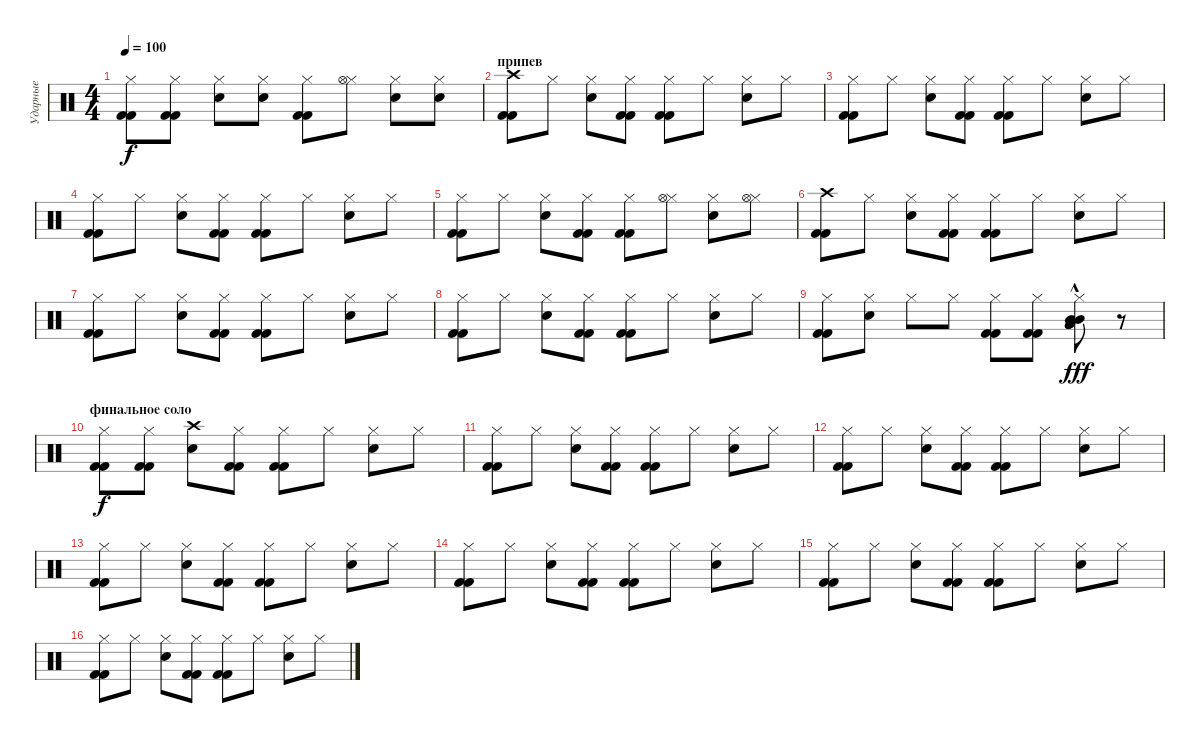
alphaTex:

\track ("Ударные" "Ударные") {instrument percussion}
\staff {score}
\articulation defaults
\ts (4 4)
\tempo 100
\clef neutral
\ks c
("Hi-Hat (closed)" "Kick (hit) 2" "Kick (hit) 2").8{dy f} ("Hi-Hat (closed)" "Kick (hit) 2" "Kick (hit) 2").8 ("Hi-Hat (closed)" "Snare (hit) 2").8 ("Hi-Hat (closed)" "Snare (hit) 2").8 ("Hi-Hat (closed)" "Kick (hit) 2" "Kick (hit) 2").8 ("Hi-Hat (closed)" "Hi-Hat (open)").8 ("Hi-Hat (closed)" "Snare (hit) 2").8 ("Hi-Hat (closed)" "Snare (hit) 2").8 |
\section ("" "припев")
("Crash high (hit)" "Kick (hit) 2" "Kick (hit) 2").8 "Hi-Hat (closed)".8 ("Hi-Hat (closed)" "Snare (hit) 2").8 ("Hi-Hat (closed)" "Kick (hit) 2" "Kick (hit) 2").8 ("Hi-Hat (closed)" "Kick (hit) 2" "Kick (hit) 2").8 "Hi-Hat (closed)".8 ("Hi-Hat (closed)" "Snare (hit) 2").8 "Hi-Hat (closed)".8 |
("Hi-Hat (closed)" "Kick (hit) 2" "Kick (hit) 2").8 "Hi-Hat (closed)".8 ("Hi-Hat (closed)" "Snare (hit) 2").8 ("Hi-Hat (closed)" "Kick (hit) 2" "Kick (hit) 2").8 ("Hi-Hat (closed)" "Kick (hit) 2" "Kick (hit) 2").8 "Hi-Hat (closed)".8 ("Hi-Hat (closed)" "Snare (hit) 2").8 "Hi-Hat (closed)".8 |
("Hi-Hat (closed)" "Kick (hit) 2" "Kick (hit) 2").8 "Hi-Hat (closed)".8 ("Hi-Hat (closed)" "Snare (hit) 2").8 ("Hi-Hat (closed)" "Kick (hit) 2" "Kick (hit) 2").8 ("Hi-Hat (closed)" "Kick (hit) 2" "Kick (hit) 2").8 "Hi-Hat (closed)".8 ("Hi-Hat (closed)" "Snare (hit) 2").8 "Hi-Hat (closed)".8 |
("Hi-Hat (closed)" "Kick (hit) 2" "Kick (hit) 2").8 "Hi-Hat (closed)".8 ("Hi-Hat (closed)" "Snare (hit) 2").8 ("Hi-Hat (closed)" "Kick (hit) 2" "Kick (hit) 2").8 ("Hi-Hat (closed)" "Kick (hit) 2" "Kick (hit) 2").8 ("Hi-Hat (closed)" "Hi-Hat (open)").8 ("Hi-Hat (closed)" "Snare (hit) 2").8 ("Hi-Hat (closed)" "Hi-Hat (open)").8 |
("Crash high (hit)" "Kick (hit) 2" "Kick (hit) 2").8 "Hi-Hat (closed)".8 ("Hi-Hat (closed)" "Snare (hit) 2").8 ("Hi-Hat (closed)" "Kick (hit) 2" "Kick (hit) 2").8 ("Hi-Hat (closed)" "Kick (hit) 2" "Kick (hit) 2").8 "Hi-Hat (closed)".8 ("Hi-Hat (closed)" "Snare (hit) 2").8 "Hi-Hat (closed)".8 |
("Hi-Hat (closed)" "Kick (hit) 2" "Kick (hit) 2").8 "Hi-Hat (closed)".8 ("Hi-Hat (closed)" "Snare (hit) 2").8 ("Hi-Hat (closed)" "Kick (hit) 2" "Kick (hit) 2").8 ("Hi-Hat (closed)" "Kick (hit) 2" "Kick (hit) 2").8 "Hi-Hat (closed)".8 ("Hi-Hat (closed)" "Snare (hit) 2").8 "Hi-Hat (closed)".8 |
("Hi-Hat (closed)" "Kick (hit) 2" "Kick (hit) 2").8 "Hi-Hat (closed)".8 ("Hi-Hat (closed)" "Snare (hit) 2").8 ("Hi-Hat (closed)" "Kick (hit) 2" "Kick (hit) 2").8 ("Hi-Hat (closed)" "Kick (hit) 2" "Kick (hit) 2").8 "Hi-Hat (closed)".8 ("Hi-Hat (closed)" "Snare (hit) 2").8 "Hi-Hat (closed)".8 |
("Hi-Hat (closed)" "Kick (hit) 2" "Kick (hit) 2").8 ("Hi-Hat (closed)" "Snare (hit) 2").8 "Hi-Hat (closed)".8 "Hi-Hat (closed)".8 ("Hi-Hat (closed)" "Kick (hit) 2" "Kick (hit) 2").8 ("Hi-Hat (closed)" "Kick (hit) 2" "Kick (hit) 2").8 ("Hi-Hat (closed)" "Low Tom (hit)"{hac} "Low Tom (hit)" "Low Tom (hit)" "Mid Tom (hit)" "Mid Tom (hit)").8{dy fff} r.8 |
\section ("" "финальное соло")
("Hi-Hat (closed)" "Kick (hit) 2" "Kick (hit) 2").8{dy f} ("Hi-Hat (closed)" "Kick (hit) 2" "Kick (hit) 2").8 ("Crash high (hit)" "Snare (hit) 2").8 ("Hi-Hat (closed)" "Kick (hit) 2" "Kick (hit) 2").8 ("Hi-Hat (closed)" "Kick (hit) 2" "Kick (hit) 2").8 "Hi-Hat (closed)".8 ("Hi-Hat (closed)" "Snare (hit) 2").8 "Hi-Hat (closed)".8 |
("Hi-Hat (closed)" "Kick (hit) 2" "Kick (hit) 2").8 "Hi-Hat (closed)".8 ("Hi-Hat (closed)" "Snare (hit) 2").8 ("Hi-Hat (closed)" "Kick (hit) 2" "Kick (hit) 2").8 ("Hi-Hat (closed)" "Kick (hit) 2" "Kick (hit) 2").8 "Hi-Hat (closed)".8 ("Hi-Hat (closed)" "Snare (hit) 2").8 "Hi-Hat (closed)".8 |
("Hi-Hat (closed)" "Kick (hit) 2" "Kick (hit) 2").8 "Hi-Hat (closed)".8 ("Hi-Hat (closed)" "Snare (hit) 2").8 ("Hi-Hat (closed)" "Kick (hit) 2" "Kick (hit) 2").8 ("Hi-Hat (closed)" "Kick (hit) 2" "Kick (hit) 2").8 "Hi-Hat (closed)".8 ("Hi-Hat (closed)" "Snare (hit) 2").8 "Hi-Hat (closed)".8 |
("Hi-Hat (closed)" "Kick (hit) 2" "Kick (hit) 2").8 "Hi-Hat (closed)".8 ("Hi-Hat (closed)" "Snare (hit) 2").8 ("Hi-Hat (closed)" "Kick (hit) 2" "Kick (hit) 2").8 ("Hi-Hat (closed)" "Kick (hit) 2" "Kick (hit) 2").8 "Hi-Hat (closed)".8 ("Hi-Hat (closed)" "Snare (hit) 2").8 "Hi-Hat (closed)".8 |
("Hi-Hat (closed)" "Kick (hit) 2" "Kick (hit) 2").8 "Hi-Hat (closed)".8 ("Hi-Hat (closed)" "Snare (hit) 2").8 ("Hi-Hat (closed)" "Kick (hit) 2" "Kick (hit) 2").8 ("Hi-Hat (closed)" "Kick (hit) 2" "Kick (hit) 2").8 "Hi-Hat (closed)".8 ("Hi-Hat (closed)" "Snare (hit) 2").8 "Hi-Hat (closed)".8 |
("Hi-Hat (closed)" "Kick (hit) 2" "Kick (hit) 2").8 "Hi-Hat (closed)".8 ("Hi-Hat (closed)" "Snare (hit) 2").8 ("Hi-Hat (closed)" "Kick (hit) 2" "Kick (hit) 2").8 ("Hi-Hat (closed)" "Kick (hit) 2" "Kick (hit) 2").8 "Hi-Hat (closed)".8 ("Hi-Hat (closed)" "Snare (hit) 2").8 "Hi-Hat (closed)".8 |
("Hi-Hat (closed)" "Kick (hit) 2" "Kick (hit) 2").8 "Hi-Hat (closed)".8 ("Hi-Hat (closed)" "Snare (hit) 2").8 ("Hi-Hat (closed)" "Kick (hit) 2" "Kick (hit) 2").8 ("Hi-Hat (closed)" "Kick (hit) 2" "Kick (hit) 2").8 "Hi-Hat (closed)".8 ("Hi-Hat (closed)" "Snare (hit) 2").8 "Hi-Hat (closed)".8
